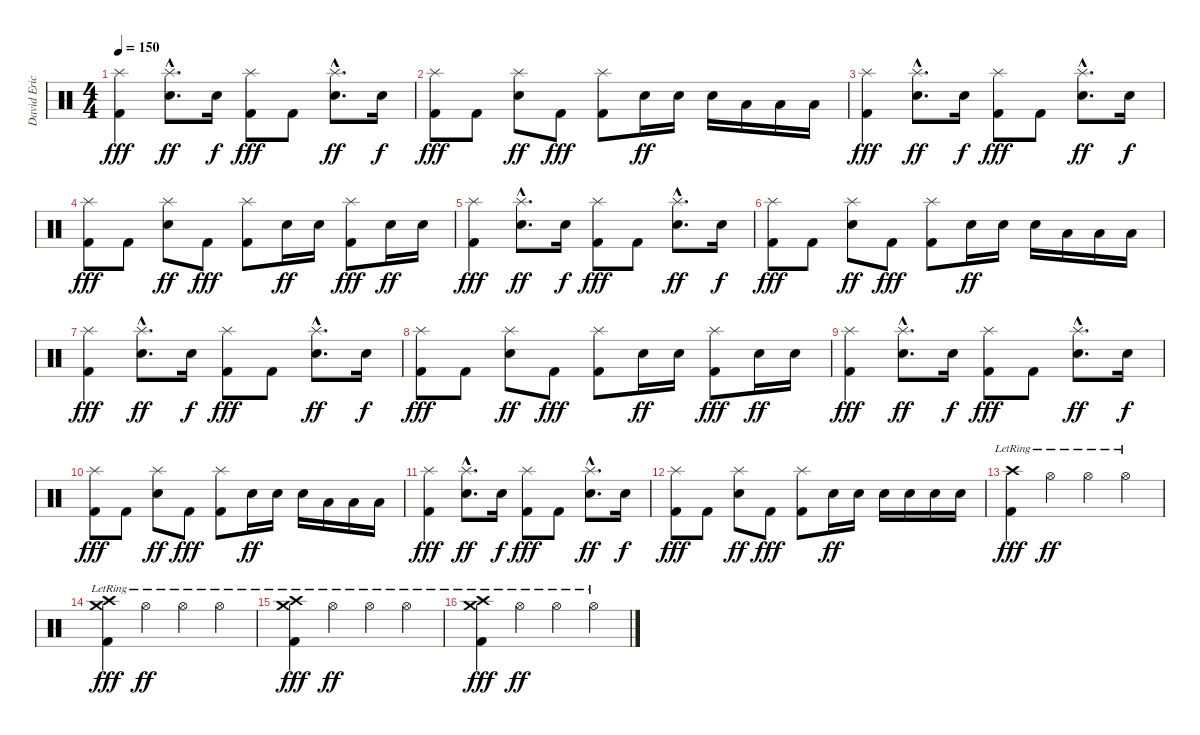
\track ("David Eric Grohl" "David Eric") {instrument percussion}
\staff {score}
\articulation defaults
\ts (4 4)
\tempo 150
\clef neutral
\ks c
("Splash (hit)" "Kick (hit) 2").4{dy fff} ("Splash (hit)"{hac} "Electric Snare (hit)"{hac}).8{d dy ff} "Electric Snare (hit)".16{dy f} ("Splash (hit)" "Kick (hit) 2").8{dy fff} "Kick (hit) 2".8 ("Splash (hit)"{hac} "Electric Snare (hit)"{hac}).8{d dy ff} "Electric Snare (hit)".16{dy f} |
("Splash (hit)" "Kick (hit) 2").8{dy fff} "Kick (hit) 2".8 ("Splash (hit)" "Electric Snare (hit)").8{dy ff} "Kick (hit) 2".8{dy fff} ("Splash (hit)" "Kick (hit) 2").8 "Electric Snare (hit)".16{dy ff} "Electric Snare (hit)".16 "Electric Snare (hit)".16 "Low Tom (hit)".16 "Low Tom (hit)".16 "Low Tom (hit)".16 |
("Splash (hit)" "Kick (hit) 2").4{dy fff} ("Splash (hit)"{hac} "Electric Snare (hit)"{hac}).8{d dy ff} "Electric Snare (hit)".16{dy f} ("Splash (hit)" "Kick (hit) 2").8{dy fff} "Kick (hit) 2".8 ("Splash (hit)"{hac} "Electric Snare (hit)"{hac}).8{d dy ff} "Electric Snare (hit)".16{dy f} |
("Splash (hit)" "Kick (hit) 2").8{dy fff} "Kick (hit) 2".8 ("Splash (hit)" "Electric Snare (hit)").8{dy ff} "Kick (hit) 2".8{dy fff} ("Splash (hit)" "Kick (hit) 2").8 "Electric Snare (hit)".16{dy ff} "Electric Snare (hit)".16 ("Splash (hit)" "Kick (hit) 2").8{dy fff} "Electric Snare (hit)".16{dy ff} "Electric Snare (hit)".16 |
("Splash (hit)" "Kick (hit) 2").4{dy fff} ("Splash (hit)"{hac} "Electric Snare (hit)"{hac}).8{d dy ff} "Electric Snare (hit)".16{dy f} ("Splash (hit)" "Kick (hit) 2").8{dy fff} "Kick (hit) 2".8 ("Splash (hit)"{hac} "Electric Snare (hit)"{hac}).8{d dy ff} "Electric Snare (hit)".16{dy f} |
("Splash (hit)" "Kick (hit) 2").8{dy fff} "Kick (hit) 2".8 ("Splash (hit)" "Electric Snare (hit)").8{dy ff} "Kick (hit) 2".8{dy fff} ("Splash (hit)" "Kick (hit) 2").8 "Electric Snare (hit)".16{dy ff} "Electric Snare (hit)".16 "Electric Snare (hit)".16 "Low Tom (hit)".16 "Low Tom (hit)".16 "Low Tom (hit)".16 |
("Splash (hit)" "Kick (hit) 2").4{dy fff} ("Splash (hit)"{hac} "Electric Snare (hit)"{hac}).8{d dy ff} "Electric Snare (hit)".16{dy f} ("Splash (hit)" "Kick (hit) 2").8{dy fff} "Kick (hit) 2".8 ("Splash (hit)"{hac} "Electric Snare (hit)"{hac}).8{d dy ff} "Electric Snare (hit)".16{dy f} |
("Splash (hit)" "Kick (hit) 2").8{dy fff} "Kick (hit) 2".8 ("Splash (hit)" "Electric Snare (hit)").8{dy ff} "Kick (hit) 2".8{dy fff} ("Splash (hit)" "Kick (hit) 2").8 "Electric Snare (hit)".16{dy ff} "Electric Snare (hit)".16 ("Splash (hit)" "Kick (hit) 2").8{dy fff} "Electric Snare (hit)".16{dy ff} "Electric Snare (hit)".16 |
("Splash (hit)" "Kick (hit) 2").4{dy fff} ("Splash (hit)"{hac} "Electric Snare (hit)"{hac}).8{d dy ff} "Electric Snare (hit)".16{dy f} ("Splash (hit)" "Kick (hit) 2").8{dy fff} "Kick (hit) 2".8 ("Splash (hit)"{hac} "Electric Snare (hit)"{hac}).8{d dy ff} "Electric Snare (hit)".16{dy f} |
("Splash (hit)" "Kick (hit) 2").8{dy fff} "Kick (hit) 2".8 ("Splash (hit)" "Electric Snare (hit)").8{dy ff} "Kick (hit) 2".8{dy fff} ("Splash (hit)" "Kick (hit) 2").8 "Electric Snare (hit)".16{dy ff} "Electric Snare (hit)".16 "Electric Snare (hit)".16 "Low Tom (hit)".16 "Low Tom (hit)".16 "Low Tom (hit)".16 |
("Splash (hit)" "Kick (hit) 2").4{dy fff} ("Splash (hit)"{hac} "Electric Snare (hit)"{hac}).8{d dy ff} "Electric Snare (hit)".16{dy f} ("Splash (hit)" "Kick (hit) 2").8{dy fff} "Kick (hit) 2".8 ("Splash (hit)"{hac} "Electric Snare (hit)"{hac}).8{d dy ff} "Electric Snare (hit)".16{dy f} |
("Splash (hit)" "Kick (hit) 2").8{dy fff} "Kick (hit) 2".8 ("Splash (hit)" "Electric Snare (hit)").8{dy ff} "Kick (hit) 2".8{dy fff} ("Splash (hit)" "Kick (hit) 2").8 "Electric Snare (hit)".16{dy ff} "Electric Snare (hit)".16 "Electric Snare (hit)".16 "Electric Snare (hit)".16 "Electric Snare (hit)".16 "Electric Snare (hit)".16 |
("Crash high (hit)"{lr} "Kick (hit) 2").4{dy fff} "Hi-Hat (open)"{lr}.4{dy ff} "Hi-Hat (open)"{lr}.4 "Hi-Hat (open)"{lr}.4 |
("Crash medium (hit)"{lr} "Crash high (hit)"{lr} "Kick (hit) 2").4{dy fff} "Hi-Hat (open)"{lr}.4{dy ff} "Hi-Hat (open)"{lr}.4 "Hi-Hat (open)"{lr}.4 |
("Crash medium (hit)"{lr} "Crash high (hit)"{lr} "Kick (hit) 2").4{dy fff} "Hi-Hat (open)"{lr}.4{dy ff} "Hi-Hat (open)"{lr}.4 "Hi-Hat (open)"{lr}.4 |
("Crash medium (hit)"{lr} "Crash high (hit)"{lr} "Kick (hit) 2").4{dy fff} "Hi-Hat (open)"{lr}.4{dy ff} "Hi-Hat (open)"{lr}.4 "Hi-Hat (open)"{lr}.4
